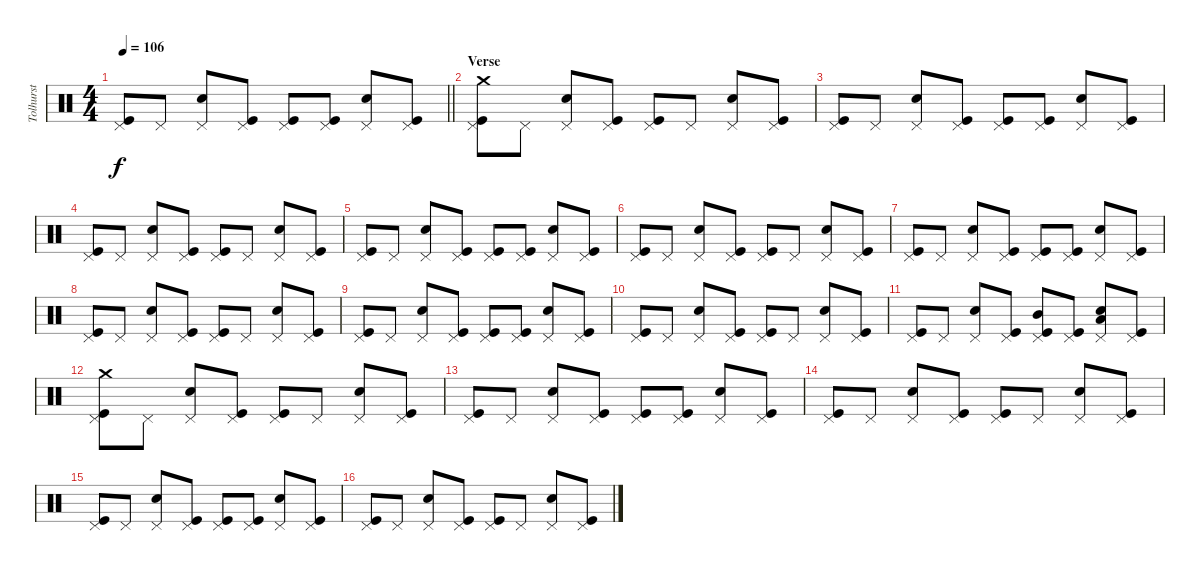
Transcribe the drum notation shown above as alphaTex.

\track ("Tolhurst" "Tolhurst") {instrument percussion}
\staff {score}
\articulation defaults
\ts (4 4)
\tempo 106
\clef neutral
\barLineRight lightlight
\ks c
("Pedal Hi-Hat (hit)" "Kick (hit)").8{dy f} "Pedal Hi-Hat (hit)".8 ("Pedal Hi-Hat (hit)" "Snare (hit) 2").8 ("Pedal Hi-Hat (hit)" "Kick (hit)").8 ("Pedal Hi-Hat (hit)" "Kick (hit)").8 ("Pedal Hi-Hat (hit)" "Kick (hit)").8 ("Pedal Hi-Hat (hit)" "Snare (hit) 2").8 ("Pedal Hi-Hat (hit)" "Kick (hit)").8 |
\section ("" "Verse")
("Crash medium (hit)" "Pedal Hi-Hat (hit)" "Kick (hit)").8 "Pedal Hi-Hat (hit)".8 ("Pedal Hi-Hat (hit)" "Snare (hit) 2").8 ("Pedal Hi-Hat (hit)" "Kick (hit)").8 ("Pedal Hi-Hat (hit)" "Kick (hit)").8 "Pedal Hi-Hat (hit)".8 ("Pedal Hi-Hat (hit)" "Snare (hit) 2").8 ("Pedal Hi-Hat (hit)" "Kick (hit)").8 |
("Pedal Hi-Hat (hit)" "Kick (hit)").8 "Pedal Hi-Hat (hit)".8 ("Pedal Hi-Hat (hit)" "Snare (hit) 2").8 ("Pedal Hi-Hat (hit)" "Kick (hit)").8 ("Pedal Hi-Hat (hit)" "Kick (hit)").8 ("Pedal Hi-Hat (hit)" "Kick (hit)").8 ("Pedal Hi-Hat (hit)" "Snare (hit) 2").8 ("Pedal Hi-Hat (hit)" "Kick (hit)").8 |
("Pedal Hi-Hat (hit)" "Kick (hit)").8 "Pedal Hi-Hat (hit)".8 ("Pedal Hi-Hat (hit)" "Snare (hit) 2").8 ("Pedal Hi-Hat (hit)" "Kick (hit)").8 ("Pedal Hi-Hat (hit)" "Kick (hit)").8 "Pedal Hi-Hat (hit)".8 ("Pedal Hi-Hat (hit)" "Snare (hit) 2").8 ("Pedal Hi-Hat (hit)" "Kick (hit)").8 |
("Pedal Hi-Hat (hit)" "Kick (hit)").8 "Pedal Hi-Hat (hit)".8 ("Pedal Hi-Hat (hit)" "Snare (hit) 2").8 ("Pedal Hi-Hat (hit)" "Kick (hit)").8 ("Pedal Hi-Hat (hit)" "Kick (hit)").8 ("Pedal Hi-Hat (hit)" "Kick (hit)").8 ("Pedal Hi-Hat (hit)" "Snare (hit) 2").8 ("Pedal Hi-Hat (hit)" "Kick (hit)").8 |
("Pedal Hi-Hat (hit)" "Kick (hit)").8 "Pedal Hi-Hat (hit)".8 ("Pedal Hi-Hat (hit)" "Snare (hit) 2").8 ("Pedal Hi-Hat (hit)" "Kick (hit)").8 ("Pedal Hi-Hat (hit)" "Kick (hit)").8 "Pedal Hi-Hat (hit)".8 ("Pedal Hi-Hat (hit)" "Snare (hit) 2").8 ("Pedal Hi-Hat (hit)" "Kick (hit)").8 |
("Pedal Hi-Hat (hit)" "Kick (hit)").8 "Pedal Hi-Hat (hit)".8 ("Pedal Hi-Hat (hit)" "Snare (hit) 2").8 ("Pedal Hi-Hat (hit)" "Kick (hit)").8 ("Pedal Hi-Hat (hit)" "Kick (hit)").8 ("Pedal Hi-Hat (hit)" "Kick (hit)").8 ("Pedal Hi-Hat (hit)" "Snare (hit) 2").8 ("Pedal Hi-Hat (hit)" "Kick (hit)").8 |
("Pedal Hi-Hat (hit)" "Kick (hit)").8 "Pedal Hi-Hat (hit)".8 ("Pedal Hi-Hat (hit)" "Snare (hit) 2").8 ("Pedal Hi-Hat (hit)" "Kick (hit)").8 ("Pedal Hi-Hat (hit)" "Kick (hit)").8 "Pedal Hi-Hat (hit)".8 ("Pedal Hi-Hat (hit)" "Snare (hit) 2").8 ("Pedal Hi-Hat (hit)" "Kick (hit)").8 |
("Pedal Hi-Hat (hit)" "Kick (hit)").8 "Pedal Hi-Hat (hit)".8 ("Pedal Hi-Hat (hit)" "Snare (hit) 2").8 ("Pedal Hi-Hat (hit)" "Kick (hit)").8 ("Pedal Hi-Hat (hit)" "Kick (hit)").8 ("Pedal Hi-Hat (hit)" "Kick (hit)").8 ("Pedal Hi-Hat (hit)" "Snare (hit) 2").8 ("Pedal Hi-Hat (hit)" "Kick (hit)").8 |
("Pedal Hi-Hat (hit)" "Kick (hit)").8 "Pedal Hi-Hat (hit)".8 ("Pedal Hi-Hat (hit)" "Snare (hit) 2").8 ("Pedal Hi-Hat (hit)" "Kick (hit)").8 ("Pedal Hi-Hat (hit)" "Kick (hit)").8 "Pedal Hi-Hat (hit)".8 ("Pedal Hi-Hat (hit)" "Snare (hit) 2").8 ("Pedal Hi-Hat (hit)" "Kick (hit)").8 |
("Pedal Hi-Hat (hit)" "Kick (hit)").8 "Pedal Hi-Hat (hit)".8 ("Pedal Hi-Hat (hit)" "Snare (hit) 2").8 ("Pedal Hi-Hat (hit)" "Kick (hit)").8 ("Mid Tom (hit)" "Pedal Hi-Hat (hit)" "Kick (hit)").8 ("Pedal Hi-Hat (hit)" "Kick (hit)").8 ("Low Tom (hit)" "Pedal Hi-Hat (hit)" "Snare (hit) 2").8 ("Pedal Hi-Hat (hit)" "Kick (hit)").8 |
("Crash medium (hit)" "Pedal Hi-Hat (hit)" "Kick (hit)").8 "Pedal Hi-Hat (hit)".8 ("Pedal Hi-Hat (hit)" "Snare (hit) 2").8 ("Pedal Hi-Hat (hit)" "Kick (hit)").8 ("Pedal Hi-Hat (hit)" "Kick (hit)").8 "Pedal Hi-Hat (hit)".8 ("Pedal Hi-Hat (hit)" "Snare (hit) 2").8 ("Pedal Hi-Hat (hit)" "Kick (hit)").8 |
("Pedal Hi-Hat (hit)" "Kick (hit)").8 "Pedal Hi-Hat (hit)".8 ("Pedal Hi-Hat (hit)" "Snare (hit) 2").8 ("Pedal Hi-Hat (hit)" "Kick (hit)").8 ("Pedal Hi-Hat (hit)" "Kick (hit)").8 ("Pedal Hi-Hat (hit)" "Kick (hit)").8 ("Pedal Hi-Hat (hit)" "Snare (hit) 2").8 ("Pedal Hi-Hat (hit)" "Kick (hit)").8 |
("Pedal Hi-Hat (hit)" "Kick (hit)").8 "Pedal Hi-Hat (hit)".8 ("Pedal Hi-Hat (hit)" "Snare (hit) 2").8 ("Pedal Hi-Hat (hit)" "Kick (hit)").8 ("Pedal Hi-Hat (hit)" "Kick (hit)").8 "Pedal Hi-Hat (hit)".8 ("Pedal Hi-Hat (hit)" "Snare (hit) 2").8 ("Pedal Hi-Hat (hit)" "Kick (hit)").8 |
("Pedal Hi-Hat (hit)" "Kick (hit)").8 "Pedal Hi-Hat (hit)".8 ("Pedal Hi-Hat (hit)" "Snare (hit) 2").8 ("Pedal Hi-Hat (hit)" "Kick (hit)").8 ("Pedal Hi-Hat (hit)" "Kick (hit)").8 ("Pedal Hi-Hat (hit)" "Kick (hit)").8 ("Pedal Hi-Hat (hit)" "Snare (hit) 2").8 ("Pedal Hi-Hat (hit)" "Kick (hit)").8 |
("Pedal Hi-Hat (hit)" "Kick (hit)").8 "Pedal Hi-Hat (hit)".8 ("Pedal Hi-Hat (hit)" "Snare (hit) 2").8 ("Pedal Hi-Hat (hit)" "Kick (hit)").8 ("Pedal Hi-Hat (hit)" "Kick (hit)").8 "Pedal Hi-Hat (hit)".8 ("Pedal Hi-Hat (hit)" "Snare (hit) 2").8 ("Pedal Hi-Hat (hit)" "Kick (hit)").8
